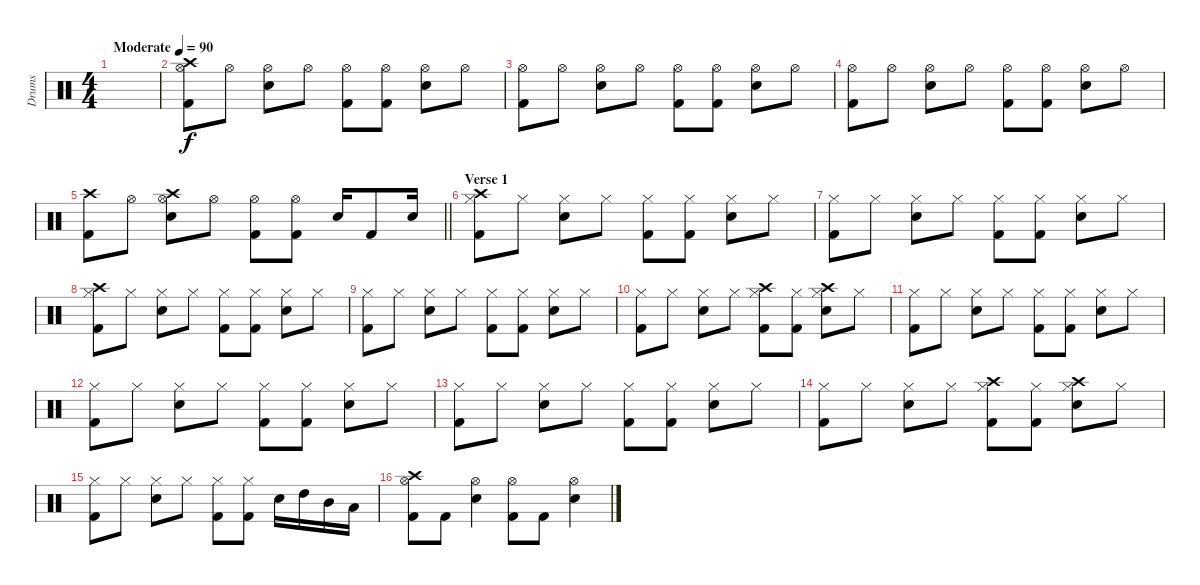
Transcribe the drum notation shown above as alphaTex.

\track ("Drums" "Drums") {instrument percussion}
\staff {score}
\articulation defaults
\ts (4 4)
\tempo (90 "Moderate")
\clef neutral
\ks c
|
("Crash high (hit)" "Hi-Hat (open)" "Kick (hit) 2").8 "Hi-Hat (open)".8 ("Hi-Hat (open)" "Snare (hit) 2").8 "Hi-Hat (open)".8 ("Hi-Hat (open)" "Kick (hit) 2").8 ("Hi-Hat (open)" "Kick (hit) 2").8 ("Hi-Hat (open)" "Snare (hit) 2").8 "Hi-Hat (open)".8 |
("Hi-Hat (open)" "Kick (hit) 2").8 "Hi-Hat (open)".8 ("Hi-Hat (open)" "Snare (hit) 2").8 "Hi-Hat (open)".8 ("Hi-Hat (open)" "Kick (hit) 2").8 ("Hi-Hat (open)" "Kick (hit) 2").8 ("Hi-Hat (open)" "Snare (hit) 2").8 "Hi-Hat (open)".8 |
("Hi-Hat (open)" "Kick (hit) 2").8 "Hi-Hat (open)".8 ("Hi-Hat (open)" "Snare (hit) 2").8 "Hi-Hat (open)".8 ("Hi-Hat (open)" "Kick (hit) 2").8 ("Hi-Hat (open)" "Kick (hit) 2").8 ("Hi-Hat (open)" "Snare (hit) 2").8 "Hi-Hat (open)".8 |
\barLineRight lightlight
("Crash high (hit)" "Kick (hit) 2").8 "Hi-Hat (open)".8 ("Crash high (hit)" "Hi-Hat (open)" "Snare (hit) 2").8 "Hi-Hat (open)".8 ("Hi-Hat (open)" "Kick (hit) 2").8 ("Hi-Hat (open)" "Kick (hit) 2").8 "Snare (hit) 2".16 "Kick (hit) 2".8 "Snare (hit) 2".16 |
\section ("" "Verse 1")
("Crash high (hit)" "Hi-Hat (closed)" "Kick (hit) 2").8 "Hi-Hat (closed)".8 ("Hi-Hat (closed)" "Snare (hit) 2").8 "Hi-Hat (closed)".8 ("Hi-Hat (closed)" "Kick (hit) 2").8 ("Hi-Hat (closed)" "Kick (hit) 2").8 ("Hi-Hat (closed)" "Snare (hit) 2").8 "Hi-Hat (closed)".8 |
("Hi-Hat (closed)" "Kick (hit) 2").8 "Hi-Hat (closed)".8 ("Hi-Hat (closed)" "Snare (hit) 2").8 "Hi-Hat (closed)".8 ("Hi-Hat (closed)" "Kick (hit) 2").8 ("Hi-Hat (closed)" "Kick (hit) 2").8 ("Hi-Hat (closed)" "Snare (hit) 2").8 "Hi-Hat (closed)".8 |
("Crash high (hit)" "Hi-Hat (closed)" "Kick (hit) 2").8 "Hi-Hat (closed)".8 ("Hi-Hat (closed)" "Snare (hit) 2").8 "Hi-Hat (closed)".8 ("Hi-Hat (closed)" "Kick (hit) 2").8 ("Hi-Hat (closed)" "Kick (hit) 2").8 ("Hi-Hat (closed)" "Snare (hit) 2").8 "Hi-Hat (closed)".8 |
("Hi-Hat (closed)" "Kick (hit) 2").8 "Hi-Hat (closed)".8 ("Hi-Hat (closed)" "Snare (hit) 2").8 "Hi-Hat (closed)".8 ("Hi-Hat (closed)" "Kick (hit) 2").8 ("Hi-Hat (closed)" "Kick (hit) 2").8 ("Hi-Hat (closed)" "Snare (hit) 2").8 "Hi-Hat (closed)".8 |
("Hi-Hat (closed)" "Kick (hit) 2").8 "Hi-Hat (closed)".8 ("Hi-Hat (closed)" "Snare (hit) 2").8 "Hi-Hat (closed)".8 ("Crash high (hit)" "Hi-Hat (closed)" "Kick (hit) 2").8 ("Hi-Hat (closed)" "Kick (hit) 2").8 ("Crash high (hit)" "Hi-Hat (closed)" "Snare (hit) 2").8 "Hi-Hat (closed)".8 |
("Hi-Hat (closed)" "Kick (hit) 2").8 "Hi-Hat (closed)".8 ("Hi-Hat (closed)" "Snare (hit) 2").8 "Hi-Hat (closed)".8 ("Hi-Hat (closed)" "Kick (hit) 2").8 ("Hi-Hat (closed)" "Kick (hit) 2").8 ("Hi-Hat (closed)" "Snare (hit) 2").8 "Hi-Hat (closed)".8 |
("Hi-Hat (closed)" "Kick (hit) 2").8 "Hi-Hat (closed)".8 ("Hi-Hat (closed)" "Snare (hit) 2").8 "Hi-Hat (closed)".8 ("Hi-Hat (closed)" "Kick (hit) 2").8 ("Hi-Hat (closed)" "Kick (hit) 2").8 ("Hi-Hat (closed)" "Snare (hit) 2").8 "Hi-Hat (closed)".8 |
("Hi-Hat (closed)" "Kick (hit) 2").8 "Hi-Hat (closed)".8 ("Hi-Hat (closed)" "Snare (hit) 2").8 "Hi-Hat (closed)".8 ("Hi-Hat (closed)" "Kick (hit) 2").8 ("Hi-Hat (closed)" "Kick (hit) 2").8 ("Hi-Hat (closed)" "Snare (hit) 2").8 "Hi-Hat (closed)".8 |
("Hi-Hat (closed)" "Kick (hit) 2").8 "Hi-Hat (closed)".8 ("Hi-Hat (closed)" "Snare (hit) 2").8 "Hi-Hat (closed)".8 ("Crash high (hit)" "Hi-Hat (closed)" "Kick (hit) 2").8 ("Hi-Hat (closed)" "Kick (hit) 2").8 ("Crash high (hit)" "Hi-Hat (closed)" "Snare (hit) 2").8 "Hi-Hat (closed)".8 |
("Hi-Hat (closed)" "Kick (hit) 2").8 "Hi-Hat (closed)".8 ("Hi-Hat (closed)" "Snare (hit) 2").8 "Hi-Hat (closed)".8 ("Hi-Hat (closed)" "Kick (hit) 2").8 ("Hi-Hat (closed)" "Kick (hit) 2").8 "Snare (hit) 2".16 "High Tom (hit)".16 "Mid Tom (hit)".16 "Low Tom (hit)".16 |
("Crash high (hit)" "Hi-Hat (open)" "Kick (hit) 2").8 "Kick (hit) 2".8 ("Hi-Hat (open)" "Snare (hit) 2").4 ("Hi-Hat (open)" "Kick (hit) 2").8 "Kick (hit) 2".8 ("Hi-Hat (open)" "Snare (hit) 2").4
